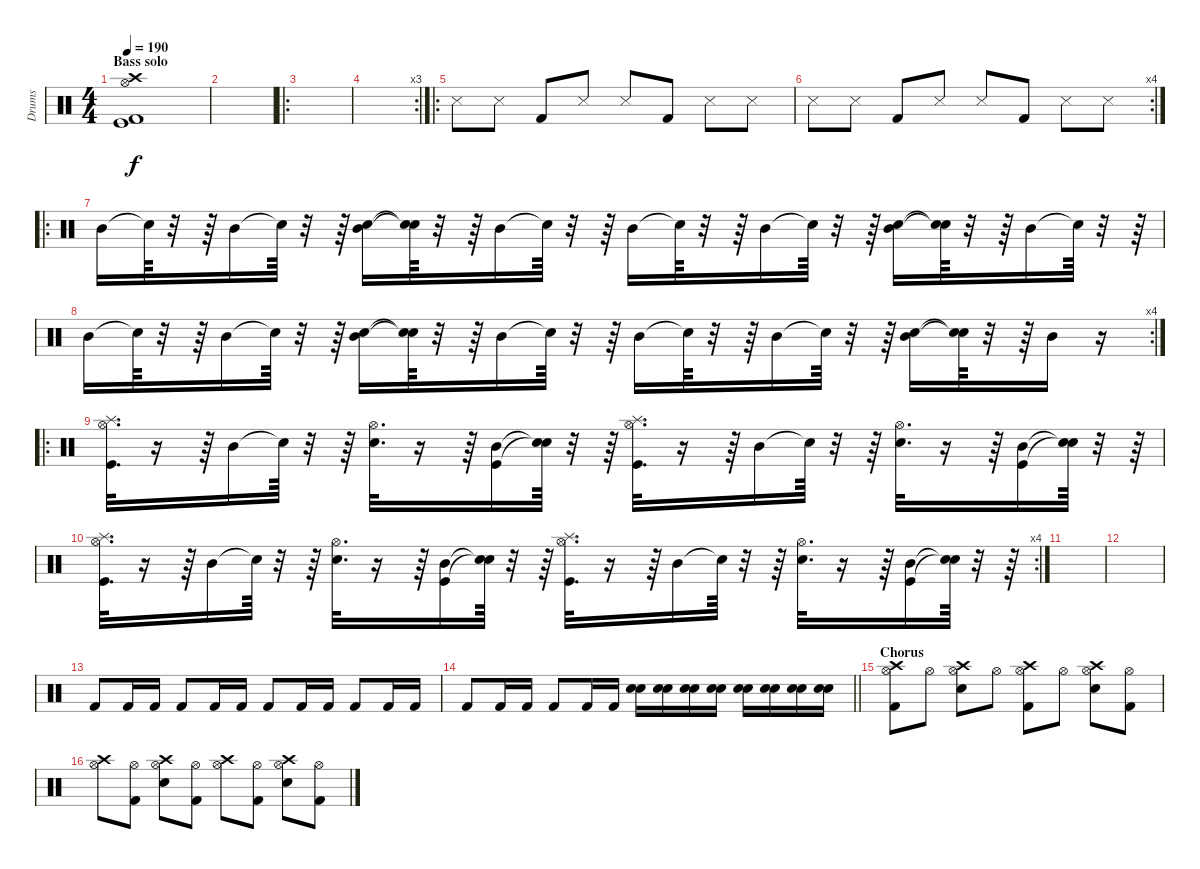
\track ("Drums" "Drums") {instrument percussion}
\staff {score}
\articulation defaults
\ts (4 4)
\section ("" "Bass solo")
\tempo 190
\clef neutral
\ks c
("Crash high (hit)" "Hi-Hat (open)" "Kick (hit) 2" "Kick (hit)").1{dy f} |
|
\ro
|
\rc 3
|
\ro "Snare (side stick) 3".8 "Snare (side stick) 3".8 "Kick (hit) 2".8 "Snare (side stick) 3".8 "Snare (side stick) 3".8 "Kick (hit) 2".8 "Snare (side stick) 3".8 "Snare (side stick) 3".8
|
\rc 4 "Snare (side stick) 3".8 "Snare (side stick) 3".8 "Kick (hit) 2".8 "Snare (side stick) 3".8 "Snare (side stick) 3".8 "Kick (hit) 2".8 "Snare (side stick) 3".8 "Snare (side stick) 3".8
|
\ro "Mid Tom (hit)".16 "Snare (hit)"{t}.64
r.32 r.64 "Mid Tom (hit)".16 "Snare (hit)"{t}.64 r.32 r.64 ("Mid Tom (hit)" "Snare (hit) 2").16 ("Snare (hit)"{t} "Snare (hit)"{t}).64 r.32 r.64 "Mid Tom (hit)".16 "Snare (hit)"{t}.64 r.32 r.64 "Mid Tom (hit)".16 "Snare (hit)"{t}.64 r.32 r.64 "Mid Tom (hit)".16 "Snare (hit)"{t}.64 r.32 r.64 ("Mid Tom (hit)" "Snare (hit) 2").16 ("Snare (hit)"{t} "Snare (hit)"{t}).64 r.32 r.64 "Mid Tom (hit)".16 "Snare (hit)"{t}.64 r.32 r.64 |
\rc 4 "Mid Tom (hit)".16 "Snare (hit)"{t}.64
r.32 r.64 "Mid Tom (hit)".16 "Snare (hit)"{t}.64 r.32 r.64 ("Mid Tom (hit)" "Snare (hit) 2").16 ("Snare (hit)"{t} "Snare (hit)"{t}).64 r.32 r.64 "Mid Tom (hit)".16 "Snare (hit)"{t}.64 r.32 r.64 "Mid Tom (hit)".16 "Snare (hit)"{t}.64 r.32 r.64 "Mid Tom (hit)".16 "Snare (hit)"{t}.64 r.32 r.64 ("Mid Tom (hit)" "Snare (hit) 2").16 ("Snare (hit)"{t} "Snare (hit)"{t}).64 r.32 r.64 "Mid Tom (hit)".16 r.16 |
\ro
("Splash (hit)" "Kick (hit)" "Hi-Hat (open)").32{d} r.16 r.64 "Mid Tom (hit)".16 "Snare (hit)"{t}.64 r.32 r.64 ("Snare (hit) 2" "Hi-Hat (open)").32{d} r.16 r.64 ("Kick (hit)" "Mid Tom (hit)").16 ("Snare (hit)"{t} "Snare (hit)"{t}).64 r.32 r.64 ("Splash (hit)" "Kick (hit)" "Hi-Hat (open)").32{d} r.16 r.64 "Mid Tom (hit)".16 "Snare (hit)"{t}.64 r.32 r.64 ("Snare (hit) 2" "Hi-Hat (open)").32{d} r.16 r.64 ("Kick (hit)" "Mid Tom (hit)").16 ("Snare (hit)"{t} "Snare (hit)"{t}).64 r.32 r.64 |
\rc 4
("Splash (hit)" "Kick (hit)" "Hi-Hat (open)").32{d} r.16 r.64 "Mid Tom (hit)".16 "Snare (hit)"{t}.64 r.32 r.64 ("Snare (hit) 2" "Hi-Hat (open)").32{d} r.16 r.64 ("Kick (hit)" "Mid Tom (hit)").16 ("Snare (hit)"{t} "Snare (hit)"{t}).64 r.32 r.64 ("Splash (hit)" "Kick (hit)" "Hi-Hat (open)").32{d} r.16 r.64 "Mid Tom (hit)".16 "Snare (hit)"{t}.64 r.32 r.64 ("Snare (hit) 2" "Hi-Hat (open)").32{d} r.16 r.64 ("Kick (hit)" "Mid Tom (hit)").16 ("Snare (hit)"{t} "Snare (hit)"{t}).64 r.32 r.64 |
|
|
"Kick (hit) 2".8 "Kick (hit) 2".16 "Kick (hit) 2".16 "Kick (hit) 2".8 "Kick (hit) 2".16 "Kick (hit) 2".16 "Kick (hit) 2".8 "Kick (hit) 2".16 "Kick (hit) 2".16 "Kick (hit) 2".8 "Kick (hit) 2".16 "Kick (hit) 2".16 |
\barLineRight lightlight "Kick (hit) 2".8 "Kick (hit) 2".16 "Kick (hit) 2".16 "Kick (hit) 2".8 "Kick (hit) 2".16 "Kick (hit) 2".16
("Snare (hit) 2" "Electric Snare (hit)").16 ("Snare (hit) 2" "Electric Snare (hit)").16 ("Snare (hit) 2" "Electric Snare (hit)").16 ("Snare (hit) 2" "Electric Snare (hit)").16 ("Snare (hit) 2" "Electric Snare (hit)").16 ("Snare (hit) 2" "Electric Snare (hit)").16 ("Snare (hit) 2" "Electric Snare (hit)").16 ("Snare (hit) 2" "Electric Snare (hit)").16 |
\section ("" "Chorus")
("Crash high (hit)" "Hi-Hat (open)" "Kick (hit) 2").8 "Hi-Hat (open)".8 ("Crash high (hit)" "Hi-Hat (open)" "Electric Snare (hit)").8 "Hi-Hat (open)".8 ("Crash high (hit)" "Hi-Hat (open)" "Kick (hit) 2").8 "Hi-Hat (open)".8 ("Crash high (hit)" "Hi-Hat (open)" "Electric Snare (hit)").8 ("Hi-Hat (open)" "Kick (hit) 2").8 |
("Crash high (hit)" "Hi-Hat (open)").8 ("Hi-Hat (open)" "Kick (hit) 2").8 ("Crash high (hit)" "Hi-Hat (open)" "Electric Snare (hit)").8 ("Hi-Hat (open)" "Kick (hit) 2").8 ("Crash high (hit)" "Hi-Hat (open)").8 ("Hi-Hat (open)" "Kick (hit) 2").8 ("Crash high (hit)" "Hi-Hat (open)" "Electric Snare (hit)").8 ("Hi-Hat (open)" "Kick (hit) 2").8
